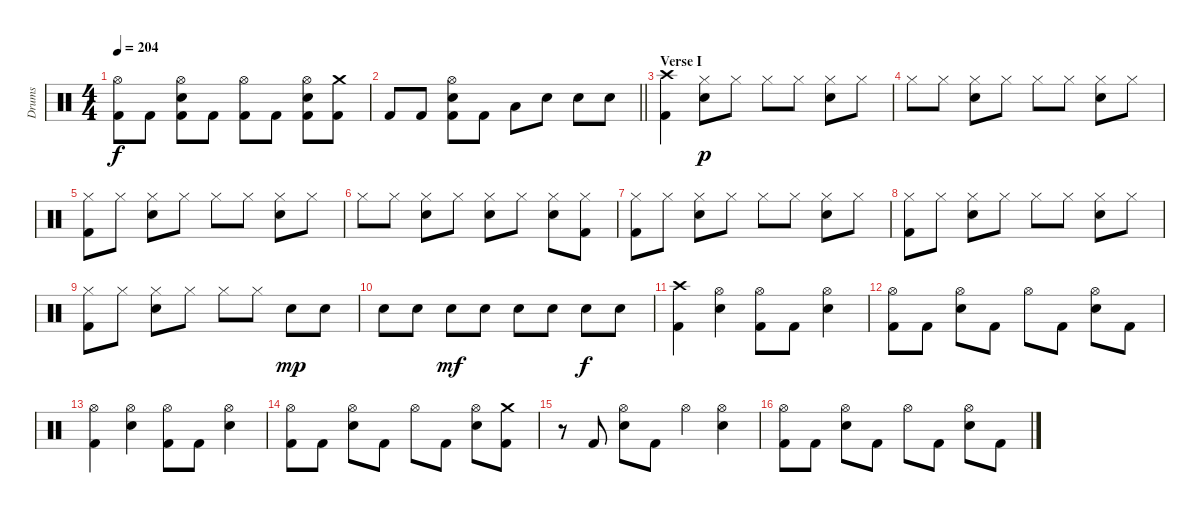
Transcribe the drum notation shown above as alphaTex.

\track ("Drums" "Drums") {instrument percussion}
\staff {score}
\articulation defaults
\ts (4 4)
\tempo 204
\clef neutral
\ks c
("Hi-Hat (open)" "Kick (hit) 2").8{dy f} "Kick (hit) 2".8 ("Hi-Hat (open)" "Snare (hit) 2" "Kick (hit) 2").8 "Kick (hit) 2".8 ("Hi-Hat (open)" "Kick (hit) 2").8 "Kick (hit) 2".8 ("Hi-Hat (open)" "Snare (hit) 2" "Kick (hit) 2").8 ("Crash medium (hit)" "Kick (hit) 2").8 |
\barLineRight lightlight "Kick (hit) 2".8 "Kick (hit) 2".8
("Hi-Hat (open)" "Snare (hit) 2" "Kick (hit) 2").8 "Kick (hit) 2".8 "Low Tom (hit)".8 "Snare (hit) 2".8 "Snare (hit) 2".8 "Snare (hit) 2".8 |
\section ("" "Verse I")
("Crash high (hit)" "Kick (hit) 2").4 ("Hi-Hat (closed)" "Snare (hit) 2").8{dy p} "Hi-Hat (closed)".8 "Hi-Hat (closed)".8 "Hi-Hat (closed)".8 ("Hi-Hat (closed)" "Snare (hit) 2").8 "Hi-Hat (closed)".8 |
"Hi-Hat (closed)".8 "Hi-Hat (closed)".8 ("Hi-Hat (closed)" "Snare (hit) 2").8 "Hi-Hat (closed)".8 "Hi-Hat (closed)".8 "Hi-Hat (closed)".8 ("Hi-Hat (closed)" "Snare (hit) 2").8 "Hi-Hat (closed)".8 |
("Hi-Hat (closed)" "Kick (hit) 2").8 "Hi-Hat (closed)".8 ("Hi-Hat (closed)" "Snare (hit) 2").8 "Hi-Hat (closed)".8 "Hi-Hat (closed)".8 "Hi-Hat (closed)".8 ("Hi-Hat (closed)" "Snare (hit) 2").8 "Hi-Hat (closed)".8 |
"Hi-Hat (closed)".8 "Hi-Hat (closed)".8 ("Hi-Hat (closed)" "Snare (hit) 2").8 "Hi-Hat (closed)".8 ("Hi-Hat (closed)" "Snare (hit) 2").8 "Hi-Hat (closed)".8 ("Hi-Hat (closed)" "Snare (hit) 2").8 ("Hi-Hat (closed)" "Kick (hit) 2").8 |
("Hi-Hat (closed)" "Kick (hit) 2").8 "Hi-Hat (closed)".8 ("Hi-Hat (closed)" "Snare (hit) 2").8 "Hi-Hat (closed)".8 "Hi-Hat (closed)".8 "Hi-Hat (closed)".8 ("Hi-Hat (closed)" "Snare (hit) 2").8 "Hi-Hat (closed)".8 |
("Hi-Hat (closed)" "Kick (hit) 2").8 "Hi-Hat (closed)".8 ("Hi-Hat (closed)" "Snare (hit) 2").8 "Hi-Hat (closed)".8 "Hi-Hat (closed)".8 "Hi-Hat (closed)".8 ("Hi-Hat (closed)" "Snare (hit) 2").8 "Hi-Hat (closed)".8 |
("Hi-Hat (closed)" "Kick (hit) 2").8 "Hi-Hat (closed)".8 ("Hi-Hat (closed)" "Snare (hit) 2").8 "Hi-Hat (closed)".8 "Hi-Hat (closed)".8 "Hi-Hat (closed)".8 "Snare (hit) 2".8{dy mp} "Snare (hit) 2".8 |
"Snare (hit) 2".8 "Snare (hit) 2".8 "Snare (hit) 2".8{dy mf} "Snare (hit) 2".8 "Snare (hit) 2".8 "Snare (hit) 2".8 "Snare (hit) 2".8{dy f} "Snare (hit) 2".8 |
("Crash high (hit)" "Kick (hit) 2").4 ("Hi-Hat (open)" "Snare (hit) 2").4 ("Hi-Hat (open)" "Kick (hit) 2").8 "Kick (hit) 2".8 ("Hi-Hat (open)" "Snare (hit) 2").4 |
("Hi-Hat (open)" "Kick (hit) 2").8 "Kick (hit) 2".8 ("Hi-Hat (open)" "Snare (hit) 2").8 "Kick (hit) 2".8 "Hi-Hat (open)".8 "Kick (hit) 2".8 ("Hi-Hat (open)" "Snare (hit) 2").8 "Kick (hit) 2".8 |
("Hi-Hat (open)" "Kick (hit) 2").4 ("Hi-Hat (open)" "Snare (hit) 2").4 ("Hi-Hat (open)" "Kick (hit) 2").8 "Kick (hit) 2".8 ("Hi-Hat (open)" "Snare (hit) 2").4 |
("Hi-Hat (open)" "Kick (hit) 2").8 "Kick (hit) 2".8 ("Hi-Hat (open)" "Snare (hit) 2").8 "Kick (hit) 2".8 "Hi-Hat (open)".8 "Kick (hit) 2".8 ("Hi-Hat (open)" "Snare (hit) 2").8 ("Crash medium (hit)" "Kick (hit) 2").8 |
r.8 "Kick (hit) 2".8 ("Hi-Hat (open)" "Snare (hit) 2").8 "Kick (hit) 2".8 "Hi-Hat (open)".4 ("Hi-Hat (open)" "Snare (hit) 2").4 |
("Hi-Hat (open)" "Kick (hit) 2").8 "Kick (hit) 2".8 ("Hi-Hat (open)" "Snare (hit) 2").8 "Kick (hit) 2".8 "Hi-Hat (open)".8 "Kick (hit) 2".8 ("Hi-Hat (open)" "Snare (hit) 2").8 "Kick (hit) 2".8
